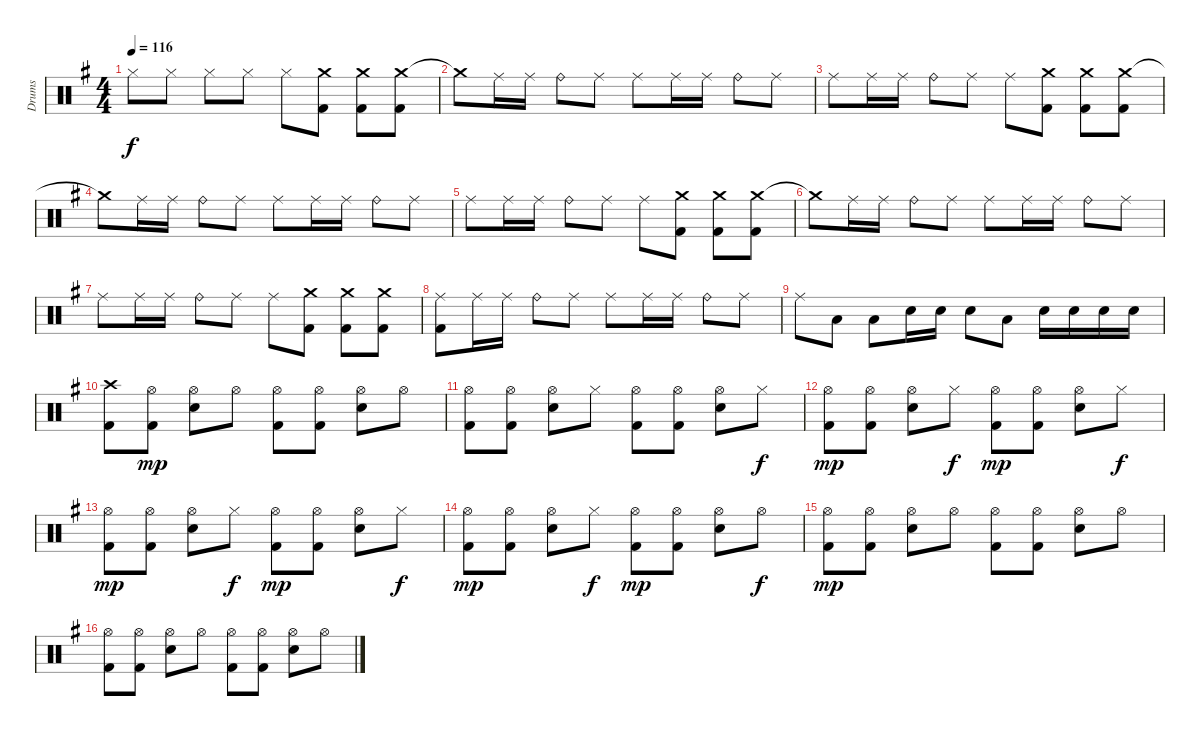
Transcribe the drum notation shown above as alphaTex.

\track ("Drums" "Drums") {instrument percussion}
\staff {score}
\articulation defaults
\ts (4 4)
\tempo 116
\clef neutral
\ks g "Hi-Hat (closed)".8{dy f} "Hi-Hat (closed)".8 "Hi-Hat (closed)".8 "Hi-Hat (closed)".8 "Hi-Hat (closed)".8
("Crash medium (hit)" "Kick (hit) 2").8 ("Crash medium (hit)" "Kick (hit) 2").8 ("Crash medium (hit)" "Kick (hit) 2").8 |
"Crash medium (hit)"{t}.8 "Ride (middle)".16 "Ride (middle)".16 "Ride (bell)".8 "Ride (middle)".8 "Ride (middle)".8 "Ride (middle)".16 "Ride (middle)".16 "Ride (bell)".8 "Ride (middle)".8 |
"Ride (middle)".8 "Ride (middle)".16 "Ride (middle)".16 "Ride (bell)".8 "Ride (middle)".8 "Ride (middle)".8 ("Crash medium (hit)" "Kick (hit) 2").8 ("Crash medium (hit)" "Kick (hit) 2").8 ("Crash medium (hit)" "Kick (hit) 2").8 |
"Crash medium (hit)"{t}.8 "Ride (middle)".16 "Ride (middle)".16 "Ride (bell)".8 "Ride (middle)".8 "Ride (middle)".8 "Ride (middle)".16 "Ride (middle)".16 "Ride (bell)".8 "Ride (middle)".8 |
"Ride (middle)".8 "Ride (middle)".16 "Ride (middle)".16 "Ride (bell)".8 "Ride (middle)".8 "Ride (middle)".8 ("Crash medium (hit)" "Kick (hit) 2").8 ("Crash medium (hit)" "Kick (hit) 2").8 ("Crash medium (hit)" "Kick (hit) 2").8 |
"Crash medium (hit)"{t}.8 "Ride (middle)".16 "Ride (middle)".16 "Ride (bell)".8 "Ride (middle)".8 "Ride (middle)".8 "Ride (middle)".16 "Ride (middle)".16 "Ride (bell)".8 "Ride (middle)".8 |
"Ride (middle)".8 "Ride (middle)".16 "Ride (middle)".16 "Ride (bell)".8 "Ride (middle)".8 "Ride (middle)".8 ("Crash medium (hit)" "Kick (hit) 2").8 ("Crash medium (hit)" "Kick (hit) 2").8 ("Crash medium (hit)" "Kick (hit) 2").8 |
("Ride (middle)" "Kick (hit) 2").8 "Ride (middle)".16 "Ride (middle)".16 "Ride (bell)".8 "Ride (middle)".8 "Ride (middle)".8 "Ride (middle)".16 "Ride (middle)".16 "Ride (bell)".8 "Ride (middle)".8 |
"Ride (middle)".8 "Low Tom (hit)".8 "Low Tom (hit)".8 "Electric Snare (hit)".16 "Electric Snare (hit)".16 "Electric Snare (hit)".8 "Low Tom (hit)".8 "Electric Snare (hit)".16 "Electric Snare (hit)".16 "Electric Snare (hit)".16 "Electric Snare (hit)".16 |
("Crash high (hit)" "Kick (hit) 2").8 ("Hi-Hat (open)" "Kick (hit) 2").8{dy mp} ("Hi-Hat (open)" "Electric Snare (hit)").8 "Hi-Hat (open)".8 ("Hi-Hat (open)" "Kick (hit) 2").8 ("Hi-Hat (open)" "Kick (hit) 2").8 ("Hi-Hat (open)" "Electric Snare (hit)").8 "Hi-Hat (open)".8 |
("Hi-Hat (open)" "Kick (hit) 2").8 ("Hi-Hat (open)" "Kick (hit) 2").8 ("Hi-Hat (open)" "Electric Snare (hit)").8 "Hi-Hat (closed)".8 ("Hi-Hat (open)" "Kick (hit) 2").8 ("Hi-Hat (open)" "Kick (hit) 2").8 ("Hi-Hat (open)" "Electric Snare (hit)").8 "Hi-Hat (closed)".8{dy f} |
("Hi-Hat (open)" "Kick (hit) 2").8{dy mp} ("Hi-Hat (open)" "Kick (hit) 2").8 ("Hi-Hat (open)" "Electric Snare (hit)").8 "Hi-Hat (closed)".8{dy f} ("Hi-Hat (open)" "Kick (hit) 2").8{dy mp} ("Hi-Hat (open)" "Kick (hit) 2").8 ("Hi-Hat (open)" "Electric Snare (hit)").8 "Hi-Hat (closed)".8{dy f} |
("Hi-Hat (open)" "Kick (hit) 2").8{dy mp} ("Hi-Hat (open)" "Kick (hit) 2").8 ("Hi-Hat (open)" "Electric Snare (hit)").8 "Hi-Hat (closed)".8{dy f} ("Hi-Hat (open)" "Kick (hit) 2").8{dy mp} ("Hi-Hat (open)" "Kick (hit) 2").8 ("Hi-Hat (open)" "Electric Snare (hit)").8 "Hi-Hat (closed)".8{dy f} |
("Hi-Hat (open)" "Kick (hit) 2").8{dy mp} ("Hi-Hat (open)" "Kick (hit) 2").8 ("Hi-Hat (open)" "Electric Snare (hit)").8 "Hi-Hat (closed)".8{dy f} ("Hi-Hat (open)" "Kick (hit) 2").8{dy mp} ("Hi-Hat (open)" "Kick (hit) 2").8 ("Hi-Hat (open)" "Electric Snare (hit)").8 "Hi-Hat (open)".8{dy f} |
("Hi-Hat (open)" "Kick (hit) 2").8{dy mp} ("Hi-Hat (open)" "Kick (hit) 2").8 ("Hi-Hat (open)" "Electric Snare (hit)").8 "Hi-Hat (open)".8 ("Hi-Hat (open)" "Kick (hit) 2").8 ("Hi-Hat (open)" "Kick (hit) 2").8 ("Hi-Hat (open)" "Electric Snare (hit)").8 "Hi-Hat (open)".8 |
("Hi-Hat (open)" "Kick (hit) 2").8 ("Hi-Hat (open)" "Kick (hit) 2").8 ("Hi-Hat (open)" "Electric Snare (hit)").8 "Hi-Hat (open)".8 ("Hi-Hat (open)" "Kick (hit) 2").8 ("Hi-Hat (open)" "Kick (hit) 2").8 ("Hi-Hat (open)" "Electric Snare (hit)").8 "Hi-Hat (open)".8
